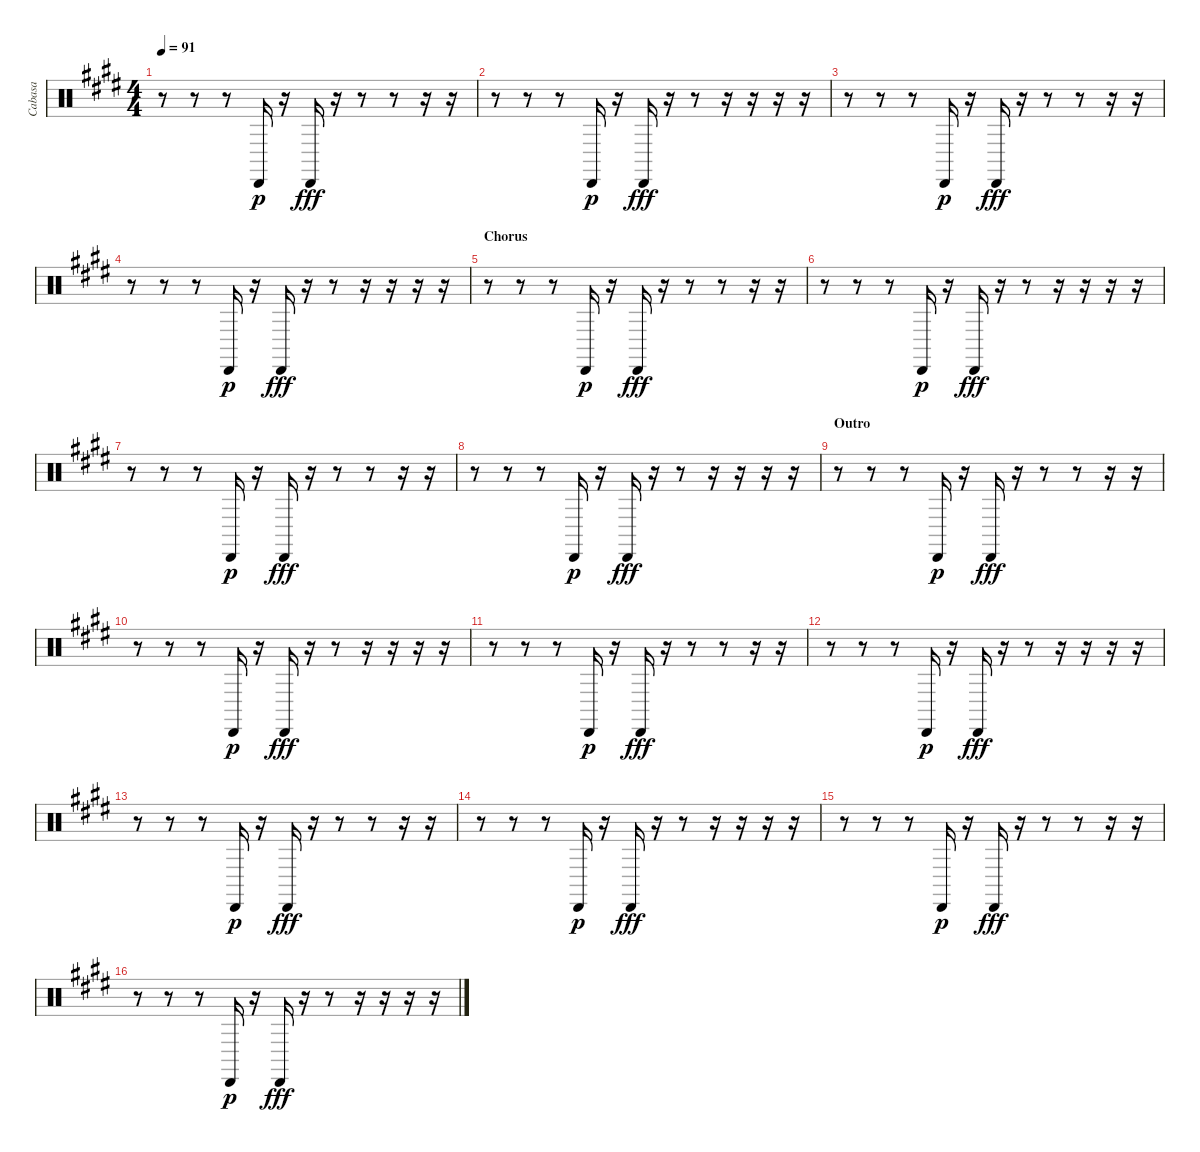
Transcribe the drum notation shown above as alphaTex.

\track ("Cabasa" "Cabasa") {instrument percussion}
\staff {score}
\articulation defaults
\ts (4 4)
\tempo 91
\clef neutral
\ks e
r.8{dy fff} r.8 r.8 "Cabasa (hit)".16{dy p} r.16 "Cabasa (hit)".16{dy fff} r.16 r.8 r.8 r.16 r.16 |
r.8 r.8 r.8 "Cabasa (hit)".16{dy p} r.16 "Cabasa (hit)".16{dy fff} r.16 r.8 r.16 r.16 r.16 r.16 |
r.8 r.8 r.8 "Cabasa (hit)".16{dy p} r.16 "Cabasa (hit)".16{dy fff} r.16 r.8 r.8 r.16 r.16 |
r.8 r.8 r.8 "Cabasa (hit)".16{dy p} r.16 "Cabasa (hit)".16{dy fff} r.16 r.8 r.16 r.16 r.16 r.16 |
\section ("" "Chorus")
r.8 r.8 r.8 "Cabasa (hit)".16{dy p} r.16 "Cabasa (hit)".16{dy fff} r.16 r.8 r.8 r.16 r.16 |
r.8 r.8 r.8 "Cabasa (hit)".16{dy p} r.16 "Cabasa (hit)".16{dy fff} r.16 r.8 r.16 r.16 r.16 r.16 |
r.8 r.8 r.8 "Cabasa (hit)".16{dy p} r.16 "Cabasa (hit)".16{dy fff} r.16 r.8 r.8 r.16 r.16 |
r.8 r.8 r.8 "Cabasa (hit)".16{dy p} r.16 "Cabasa (hit)".16{dy fff} r.16 r.8 r.16 r.16 r.16 r.16 |
\section ("" "Outro")
r.8 r.8 r.8 "Cabasa (hit)".16{dy p} r.16 "Cabasa (hit)".16{dy fff} r.16 r.8 r.8 r.16 r.16 |
r.8 r.8 r.8 "Cabasa (hit)".16{dy p} r.16 "Cabasa (hit)".16{dy fff} r.16 r.8 r.16 r.16 r.16 r.16 |
r.8 r.8 r.8 "Cabasa (hit)".16{dy p} r.16 "Cabasa (hit)".16{dy fff} r.16 r.8 r.8 r.16 r.16 |
r.8 r.8 r.8 "Cabasa (hit)".16{dy p} r.16 "Cabasa (hit)".16{dy fff} r.16 r.8 r.16 r.16 r.16 r.16 |
r.8 r.8 r.8 "Cabasa (hit)".16{dy p} r.16 "Cabasa (hit)".16{dy fff} r.16 r.8 r.8 r.16 r.16 |
r.8 r.8 r.8 "Cabasa (hit)".16{dy p} r.16 "Cabasa (hit)".16{dy fff} r.16 r.8 r.16 r.16 r.16 r.16 |
r.8 r.8 r.8 "Cabasa (hit)".16{dy p} r.16 "Cabasa (hit)".16{dy fff} r.16 r.8 r.8 r.16 r.16 |
r.8 r.8 r.8 "Cabasa (hit)".16{dy p} r.16 "Cabasa (hit)".16{dy fff} r.16 r.8 r.16 r.16 r.16 r.16
